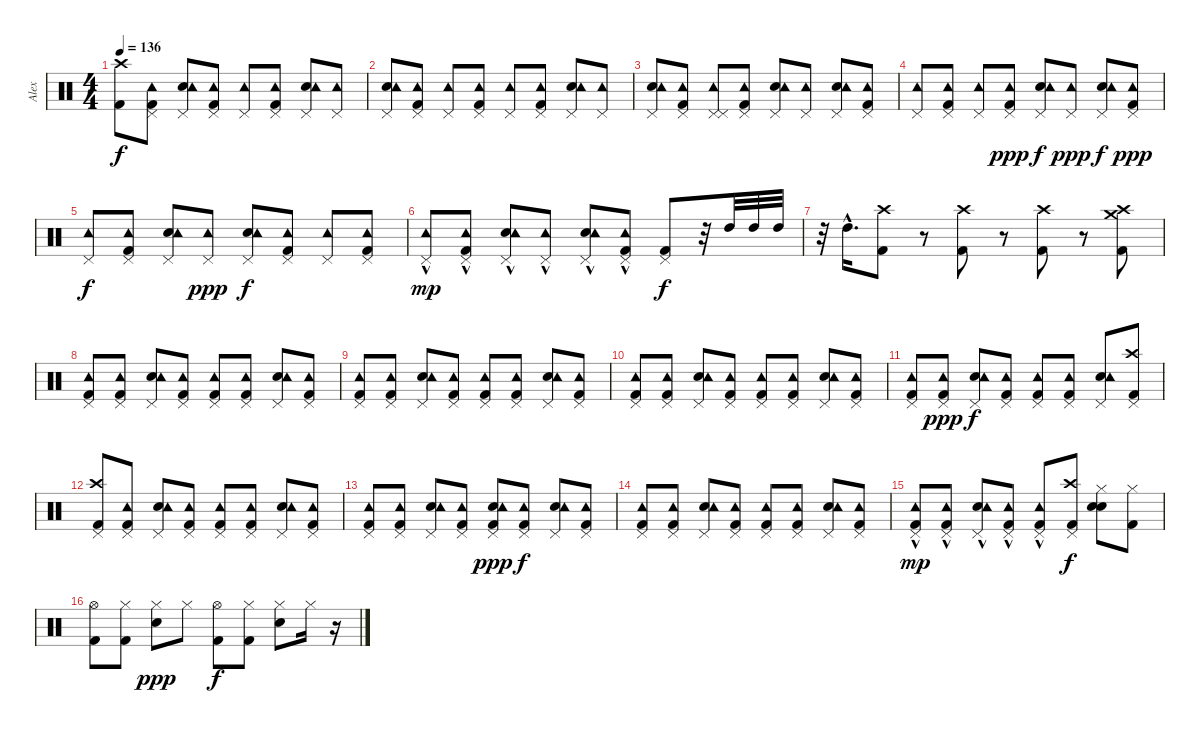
\track ("Alex" "Alex") {instrument percussion}
\staff {score}
\articulation defaults
\ts (4 4)
\tempo 136
\clef neutral
\ks c
("Kick (hit) 2" "Crash high (hit)").8{dy f} ("Kick (hit) 2" "Pedal Hi-Hat (hit)" "Tambourine (hit)").8 ("Pedal Hi-Hat (hit)" "Snare (hit) 2" "Tambourine (hit)").8 ("Pedal Hi-Hat (hit)" "Kick (hit) 2" "Tambourine (hit)").8 ("Pedal Hi-Hat (hit)" "Tambourine (hit)").8 ("Pedal Hi-Hat (hit)" "Kick (hit) 2" "Tambourine (hit)").8 ("Pedal Hi-Hat (hit)" "Snare (hit) 2" "Tambourine (hit)").8 ("Pedal Hi-Hat (hit)" "Tambourine (hit)").8 |
("Pedal Hi-Hat (hit)" "Snare (hit) 2" "Tambourine (hit)").8 ("Pedal Hi-Hat (hit)" "Kick (hit) 2" "Tambourine (hit)").8 ("Pedal Hi-Hat (hit)" "Tambourine (hit)").8 ("Pedal Hi-Hat (hit)" "Kick (hit) 2" "Tambourine (hit)").8 ("Pedal Hi-Hat (hit)" "Tambourine (hit)").8 ("Pedal Hi-Hat (hit)" "Kick (hit) 2" "Tambourine (hit)").8 ("Pedal Hi-Hat (hit)" "Snare (hit) 2" "Tambourine (hit)").8 ("Pedal Hi-Hat (hit)" "Tambourine (hit)").8 |
("Pedal Hi-Hat (hit)" "Snare (hit) 2" "Tambourine (hit)").8 ("Pedal Hi-Hat (hit)" "Kick (hit) 2" "Tambourine (hit)").8 ("Pedal Hi-Hat (hit)" "Pedal Hi-Hat (hit)" "Tambourine (hit)").8 ("Kick (hit) 2" "Pedal Hi-Hat (hit)" "Tambourine (hit)").8 ("Snare (hit) 2" "Pedal Hi-Hat (hit)" "Tambourine (hit)").8 ("Pedal Hi-Hat (hit)" "Tambourine (hit)").8 ("Snare (hit) 2" "Pedal Hi-Hat (hit)" "Tambourine (hit)").8 ("Kick (hit) 2" "Pedal Hi-Hat (hit)" "Tambourine (hit)").8 |
("Pedal Hi-Hat (hit)" "Tambourine (hit)").8 ("Pedal Hi-Hat (hit)" "Kick (hit) 2" "Tambourine (hit)").8 ("Pedal Hi-Hat (hit)" "Tambourine (hit)").8 ("Pedal Hi-Hat (hit)" "Kick (hit) 2" "Tambourine (hit)").8{dy ppp} ("Pedal Hi-Hat (hit)" "Snare (hit) 2" "Tambourine (hit)").8{dy f} ("Pedal Hi-Hat (hit)" "Tambourine (hit)").8{dy ppp} ("Pedal Hi-Hat (hit)" "Snare (hit) 2" "Tambourine (hit)").8{dy f} ("Pedal Hi-Hat (hit)" "Kick (hit) 2" "Tambourine (hit)").8{dy ppp} |
("Pedal Hi-Hat (hit)" "Tambourine (hit)").8{dy f} ("Pedal Hi-Hat (hit)" "Kick (hit) 2" "Tambourine (hit)").8 ("Pedal Hi-Hat (hit)" "Snare (hit) 2" "Tambourine (hit)").8 ("Pedal Hi-Hat (hit)" "Tambourine (hit)").8{dy ppp} ("Snare (hit) 2" "Pedal Hi-Hat (hit)" "Tambourine (hit)").8{dy f} ("Kick (hit) 2" "Pedal Hi-Hat (hit)" "Tambourine (hit)").8 ("Pedal Hi-Hat (hit)" "Tambourine (hit)").8 ("Pedal Hi-Hat (hit)" "Kick (hit) 2" "Tambourine (hit)").8 |
("Pedal Hi-Hat (hit)" "Tambourine (hit)"{hac}).8{dy mp} ("Pedal Hi-Hat (hit)" "Kick (hit) 2" "Tambourine (hit)"{hac}).8 ("Pedal Hi-Hat (hit)" "Snare (hit) 2" "Tambourine (hit)"{hac}).8 ("Pedal Hi-Hat (hit)" "Tambourine (hit)"{hac}).8 ("Snare (hit) 2" "Pedal Hi-Hat (hit)" "Tambourine (hit)"{hac}).8 ("Kick (hit) 2" "Pedal Hi-Hat (hit)" "Tambourine (hit)"{hac}).8 ("Kick (hit) 2" "Pedal Hi-Hat (hit)").8{dy f} r.32 "High Tom (hit)".32 "High Tom (hit)".32 "High Tom (hit)".32 |
r.32 "High Tom (hit)"{hac}.16{d} ("Kick (hit) 2" "Crash high (hit)").8 r.8 ("Crash high (hit)" "Kick (hit) 2").8 r.8 ("Kick (hit) 2" "Crash high (hit)").8 r.8 ("Crash medium (hit)" "Kick (hit) 2" "Crash high (hit)").8 |
("Kick (hit) 2" "Pedal Hi-Hat (hit)" "Tambourine (hit)").8 ("Kick (hit) 2" "Pedal Hi-Hat (hit)" "Tambourine (hit)").8 ("Snare (hit) 2" "Pedal Hi-Hat (hit)" "Tambourine (hit)").8 ("Kick (hit) 2" "Pedal Hi-Hat (hit)" "Tambourine (hit)").8 ("Kick (hit) 2" "Pedal Hi-Hat (hit)" "Tambourine (hit)").8 ("Kick (hit) 2" "Pedal Hi-Hat (hit)" "Tambourine (hit)").8 ("Snare (hit) 2" "Pedal Hi-Hat (hit)" "Tambourine (hit)").8 ("Kick (hit) 2" "Pedal Hi-Hat (hit)" "Tambourine (hit)").8 |
("Kick (hit) 2" "Pedal Hi-Hat (hit)" "Tambourine (hit)").8 ("Kick (hit) 2" "Pedal Hi-Hat (hit)" "Tambourine (hit)").8 ("Snare (hit) 2" "Pedal Hi-Hat (hit)" "Tambourine (hit)").8 ("Kick (hit) 2" "Pedal Hi-Hat (hit)" "Tambourine (hit)").8 ("Kick (hit) 2" "Pedal Hi-Hat (hit)" "Tambourine (hit)").8 ("Kick (hit) 2" "Pedal Hi-Hat (hit)" "Tambourine (hit)").8 ("Snare (hit) 2" "Pedal Hi-Hat (hit)" "Tambourine (hit)").8 ("Kick (hit) 2" "Pedal Hi-Hat (hit)" "Tambourine (hit)").8 |
("Kick (hit) 2" "Pedal Hi-Hat (hit)" "Tambourine (hit)").8 ("Kick (hit) 2" "Pedal Hi-Hat (hit)" "Tambourine (hit)").8 ("Snare (hit) 2" "Pedal Hi-Hat (hit)" "Tambourine (hit)").8 ("Kick (hit) 2" "Pedal Hi-Hat (hit)" "Tambourine (hit)").8 ("Kick (hit) 2" "Pedal Hi-Hat (hit)" "Tambourine (hit)").8 ("Pedal Hi-Hat (hit)" "Kick (hit) 2" "Tambourine (hit)").8 ("Snare (hit) 2" "Pedal Hi-Hat (hit)" "Tambourine (hit)").8 ("Kick (hit) 2" "Pedal Hi-Hat (hit)" "Tambourine (hit)").8 |
("Kick (hit) 2" "Pedal Hi-Hat (hit)" "Tambourine (hit)").8 ("Kick (hit) 2" "Pedal Hi-Hat (hit)" "Tambourine (hit)").8{dy ppp} ("Snare (hit) 2" "Pedal Hi-Hat (hit)" "Tambourine (hit)").8{dy f} ("Kick (hit) 2" "Pedal Hi-Hat (hit)" "Tambourine (hit)").8 ("Kick (hit) 2" "Pedal Hi-Hat (hit)" "Tambourine (hit)").8 ("Kick (hit) 2" "Pedal Hi-Hat (hit)" "Tambourine (hit)").8 ("Snare (hit) 2" "Pedal Hi-Hat (hit)" "Tambourine (hit)").8 ("Crash high (hit)" "Kick (hit) 2" "Pedal Hi-Hat (hit)").8 |
("Kick (hit) 2" "Crash high (hit)" "Pedal Hi-Hat (hit)").8 ("Kick (hit) 2" "Pedal Hi-Hat (hit)" "Tambourine (hit)").8 ("Snare (hit) 2" "Pedal Hi-Hat (hit)" "Tambourine (hit)").8 ("Kick (hit) 2" "Pedal Hi-Hat (hit)" "Tambourine (hit)").8 ("Kick (hit) 2" "Pedal Hi-Hat (hit)" "Tambourine (hit)").8 ("Kick (hit) 2" "Pedal Hi-Hat (hit)" "Tambourine (hit)").8 ("Snare (hit) 2" "Pedal Hi-Hat (hit)" "Tambourine (hit)").8 ("Kick (hit) 2" "Pedal Hi-Hat (hit)" "Tambourine (hit)").8 |
("Kick (hit) 2" "Pedal Hi-Hat (hit)" "Tambourine (hit)").8 ("Kick (hit) 2" "Pedal Hi-Hat (hit)" "Tambourine (hit)").8 ("Snare (hit) 2" "Pedal Hi-Hat (hit)" "Tambourine (hit)").8 ("Kick (hit) 2" "Pedal Hi-Hat (hit)" "Tambourine (hit)").8 ("Kick (hit) 2" "Snare (hit) 2" "Pedal Hi-Hat (hit)" "Tambourine (hit)").8{dy ppp} ("Kick (hit) 2" "Pedal Hi-Hat (hit)" "Tambourine (hit)").8{dy f} ("Snare (hit) 2" "Pedal Hi-Hat (hit)" "Tambourine (hit)").8 ("Kick (hit) 2" "Pedal Hi-Hat (hit)" "Tambourine (hit)").8 |
("Kick (hit) 2" "Pedal Hi-Hat (hit)" "Tambourine (hit)").8 ("Kick (hit) 2" "Pedal Hi-Hat (hit)" "Tambourine (hit)").8 ("Snare (hit) 2" "Pedal Hi-Hat (hit)" "Tambourine (hit)").8 ("Kick (hit) 2" "Pedal Hi-Hat (hit)" "Tambourine (hit)").8 ("Kick (hit) 2" "Pedal Hi-Hat (hit)" "Tambourine (hit)").8 ("Kick (hit) 2" "Pedal Hi-Hat (hit)" "Tambourine (hit)").8 ("Snare (hit) 2" "Pedal Hi-Hat (hit)" "Tambourine (hit)").8 ("Kick (hit) 2" "Pedal Hi-Hat (hit)" "Tambourine (hit)").8 |
("Pedal Hi-Hat (hit)" "Kick (hit) 2" "Tambourine (hit)"{hac}).8{dy mp} ("Pedal Hi-Hat (hit)" "Kick (hit) 2" "Tambourine (hit)"{hac}).8 ("Snare (hit) 2" "Pedal Hi-Hat (hit)" "Tambourine (hit)"{hac}).8 ("Pedal Hi-Hat (hit)" "Kick (hit) 2" "Tambourine (hit)"{hac}).8 ("Kick (hit) 2" "Pedal Hi-Hat (hit)" "Tambourine (hit)"{hac}).8 ("Pedal Hi-Hat (hit)" "Crash high (hit)" "Kick (hit) 2").8{dy f} ("Hi-Hat (closed)" "Snare (hit) 2" "Snare (hit) 2").8 ("Hi-Hat (closed)" "Kick (hit) 2").8 |
("Kick (hit) 2" "Hi-Hat (open)").8 ("Kick (hit) 2" "Hi-Hat (closed)").8 ("Hi-Hat (closed)" "Snare (hit) 2").8{dy ppp} "Hi-Hat (closed)".8 ("Kick (hit) 2" "Hi-Hat (open)").8{dy f} ("Kick (hit) 2" "Hi-Hat (closed)").8 ("Hi-Hat (closed)" "Snare (hit) 2").8 "Hi-Hat (closed)".16 r.16
